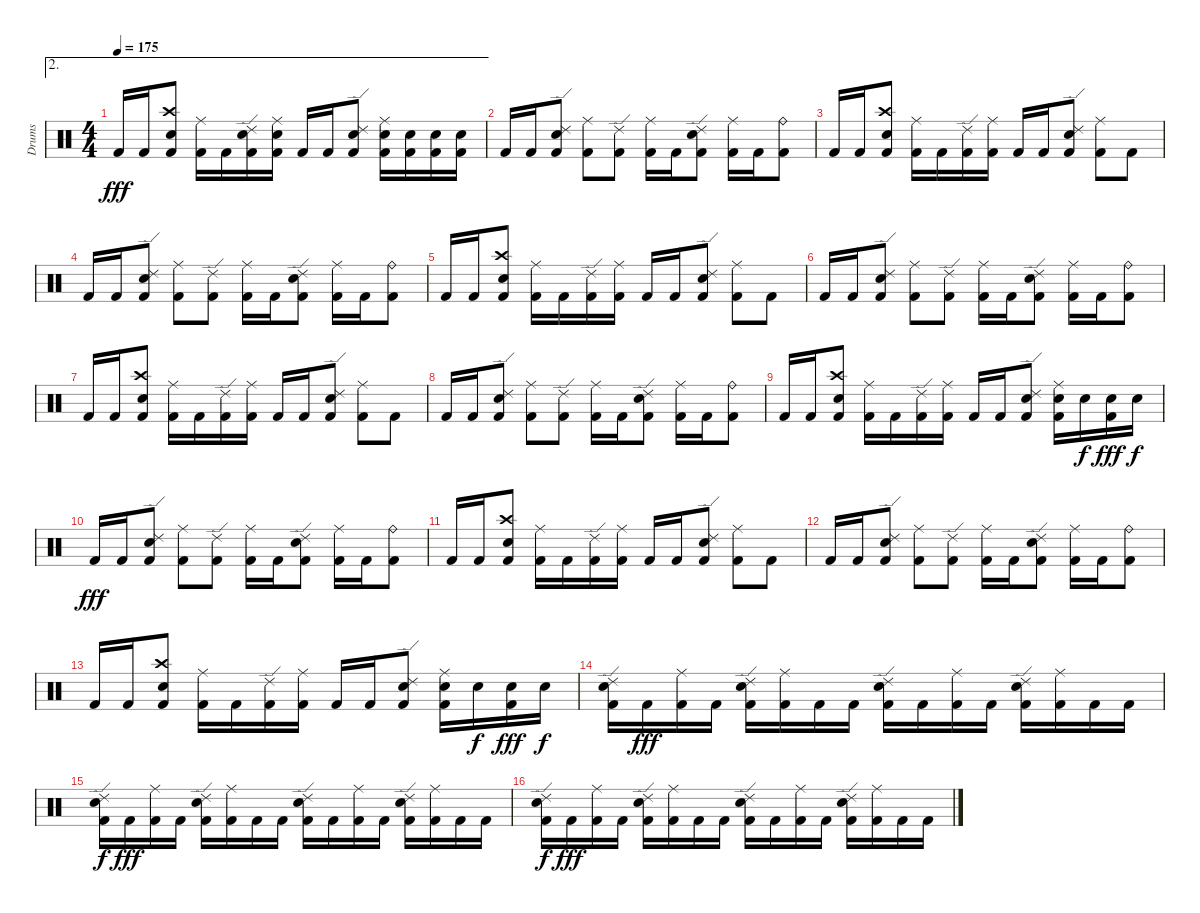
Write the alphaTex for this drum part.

\track ("Drums" "Drums") {instrument percussion}
\staff {score}
\articulation defaults
\ae 2
\ts (4 4)
\tempo 175
\clef neutral
\ks c "Kick (hit) 2".16{dy fff} "Kick (hit) 2".16
("Crash high (hit)" "Electric Snare (hit)" "Kick (hit) 2").8 ("Ride (middle)" "Kick (hit) 2").16 "Kick (hit) 2".16 ("Ride (edge) 2" "Electric Snare (hit)" "Kick (hit) 2").16 ("Ride (middle)" "Electric Snare (hit)" "Kick (hit) 2").16 "Kick (hit) 2".16 "Kick (hit) 2".16 ("Ride (edge) 2" "Electric Snare (hit)" "Kick (hit) 2").8 ("Ride (middle)" "Electric Snare (hit)" "Kick (hit) 2").16 ("Electric Snare (hit)" "Kick (hit) 2").16 ("Electric Snare (hit)" "Kick (hit) 2").16 ("Electric Snare (hit)" "Kick (hit) 2").16 |
"Kick (hit) 2".16 "Kick (hit) 2".16 ("Ride (edge) 2" "Electric Snare (hit)" "Kick (hit) 2").8 ("Ride (middle)" "Kick (hit) 2").8 ("Ride (edge) 2" "Kick (hit) 2").8 ("Ride (middle)" "Kick (hit) 2").16 "Kick (hit) 2".16 ("Ride (edge) 2" "Electric Snare (hit)" "Kick (hit) 2").8 ("Ride (middle)" "Kick (hit) 2").16 "Kick (hit) 2".16 ("Ride (bell)" "Kick (hit) 2").8 |
"Kick (hit) 2".16 "Kick (hit) 2".16 ("Crash high (hit)" "Electric Snare (hit)" "Kick (hit) 2").8 ("Ride (middle)" "Kick (hit) 2").16 "Kick (hit) 2".16 ("Ride (edge) 2" "Kick (hit) 2").16 ("Ride (middle)" "Kick (hit) 2").16 "Kick (hit) 2".16 "Kick (hit) 2".16 ("Ride (edge) 2" "Electric Snare (hit)" "Kick (hit) 2").8 ("Ride (middle)" "Kick (hit) 2").8 "Kick (hit) 2".8 |
"Kick (hit) 2".16 "Kick (hit) 2".16 ("Ride (edge) 2" "Electric Snare (hit)" "Kick (hit) 2").8 ("Ride (middle)" "Kick (hit) 2").8 ("Ride (edge) 2" "Kick (hit) 2").8 ("Ride (middle)" "Kick (hit) 2").16 "Kick (hit) 2".16 ("Ride (edge) 2" "Electric Snare (hit)" "Kick (hit) 2").8 ("Ride (middle)" "Kick (hit) 2").16 "Kick (hit) 2".16 ("Ride (bell)" "Kick (hit) 2").8 |
"Kick (hit) 2".16 "Kick (hit) 2".16 ("Crash high (hit)" "Electric Snare (hit)" "Kick (hit) 2").8 ("Ride (middle)" "Kick (hit) 2").16 "Kick (hit) 2".16 ("Ride (edge) 2" "Kick (hit) 2").16 ("Ride (middle)" "Kick (hit) 2").16 "Kick (hit) 2".16 "Kick (hit) 2".16 ("Ride (edge) 2" "Electric Snare (hit)" "Kick (hit) 2").8 ("Ride (middle)" "Kick (hit) 2").8 "Kick (hit) 2".8 |
"Kick (hit) 2".16 "Kick (hit) 2".16 ("Ride (edge) 2" "Electric Snare (hit)" "Kick (hit) 2").8 ("Ride (middle)" "Kick (hit) 2").8 ("Ride (edge) 2" "Kick (hit) 2").8 ("Ride (middle)" "Kick (hit) 2").16 "Kick (hit) 2".16 ("Ride (edge) 2" "Electric Snare (hit)" "Kick (hit) 2").8 ("Ride (middle)" "Kick (hit) 2").16 "Kick (hit) 2".16 ("Ride (bell)" "Kick (hit) 2").8 |
"Kick (hit) 2".16 "Kick (hit) 2".16 ("Crash high (hit)" "Electric Snare (hit)" "Kick (hit) 2").8 ("Ride (middle)" "Kick (hit) 2").16 "Kick (hit) 2".16 ("Ride (edge) 2" "Kick (hit) 2").16 ("Ride (middle)" "Kick (hit) 2").16 "Kick (hit) 2".16 "Kick (hit) 2".16 ("Ride (edge) 2" "Electric Snare (hit)" "Kick (hit) 2").8 ("Ride (middle)" "Kick (hit) 2").8 "Kick (hit) 2".8 |
"Kick (hit) 2".16 "Kick (hit) 2".16 ("Ride (edge) 2" "Electric Snare (hit)" "Kick (hit) 2").8 ("Ride (middle)" "Kick (hit) 2").8 ("Ride (edge) 2" "Kick (hit) 2").8 ("Ride (middle)" "Kick (hit) 2").16 "Kick (hit) 2".16 ("Ride (edge) 2" "Electric Snare (hit)" "Kick (hit) 2").8 ("Ride (middle)" "Kick (hit) 2").16 "Kick (hit) 2".16 ("Ride (bell)" "Kick (hit) 2").8 |
"Kick (hit) 2".16 "Kick (hit) 2".16 ("Crash high (hit)" "Electric Snare (hit)" "Kick (hit) 2").8 ("Ride (middle)" "Kick (hit) 2").16 "Kick (hit) 2".16 ("Ride (edge) 2" "Kick (hit) 2").16 ("Ride (middle)" "Kick (hit) 2").16 "Kick (hit) 2".16 "Kick (hit) 2".16 ("Ride (edge) 2" "Electric Snare (hit)" "Kick (hit) 2").8 ("Ride (middle)" "Electric Snare (hit)" "Kick (hit) 2").16 "Electric Snare (hit)".16{dy f} ("Electric Snare (hit)" "Kick (hit) 2").16{dy fff} "Electric Snare (hit)".16{dy f} |
"Kick (hit) 2".16{dy fff} "Kick (hit) 2".16 ("Ride (edge) 2" "Electric Snare (hit)" "Kick (hit) 2").8 ("Ride (middle)" "Kick (hit) 2").8 ("Ride (edge) 2" "Kick (hit) 2").8 ("Ride (middle)" "Kick (hit) 2").16 "Kick (hit) 2".16 ("Ride (edge) 2" "Electric Snare (hit)" "Kick (hit) 2").8 ("Ride (middle)" "Kick (hit) 2").16 "Kick (hit) 2".16 ("Ride (bell)" "Kick (hit) 2").8 |
"Kick (hit) 2".16 "Kick (hit) 2".16 ("Crash high (hit)" "Electric Snare (hit)" "Kick (hit) 2").8 ("Ride (middle)" "Kick (hit) 2").16 "Kick (hit) 2".16 ("Ride (edge) 2" "Kick (hit) 2").16 ("Ride (middle)" "Kick (hit) 2").16 "Kick (hit) 2".16 "Kick (hit) 2".16 ("Ride (edge) 2" "Electric Snare (hit)" "Kick (hit) 2").8 ("Ride (middle)" "Kick (hit) 2").8 "Kick (hit) 2".8 |
"Kick (hit) 2".16 "Kick (hit) 2".16 ("Ride (edge) 2" "Electric Snare (hit)" "Kick (hit) 2").8 ("Ride (middle)" "Kick (hit) 2").8 ("Ride (edge) 2" "Kick (hit) 2").8 ("Ride (middle)" "Kick (hit) 2").16 "Kick (hit) 2".16 ("Ride (edge) 2" "Electric Snare (hit)" "Kick (hit) 2").8 ("Ride (middle)" "Kick (hit) 2").16 "Kick (hit) 2".16 ("Ride (bell)" "Kick (hit) 2").8 |
"Kick (hit) 2".16 "Kick (hit) 2".16 ("Crash high (hit)" "Electric Snare (hit)" "Kick (hit) 2").8 ("Ride (middle)" "Kick (hit) 2").16 "Kick (hit) 2".16 ("Ride (edge) 2" "Kick (hit) 2").16 ("Ride (middle)" "Kick (hit) 2").16 "Kick (hit) 2".16 "Kick (hit) 2".16 ("Ride (edge) 2" "Electric Snare (hit)" "Kick (hit) 2").8 ("Ride (middle)" "Electric Snare (hit)" "Kick (hit) 2").16 "Electric Snare (hit)".16{dy f} ("Electric Snare (hit)" "Kick (hit) 2").16{dy fff} "Electric Snare (hit)".16{dy f} |
("Ride (edge) 2" "Electric Snare (hit)" "Kick (hit) 2").16 "Kick (hit) 2".16{dy fff} ("Ride (middle)" "Kick (hit) 2").16 "Kick (hit) 2".16 ("Ride (edge) 2" "Electric Snare (hit)" "Kick (hit) 2").16 ("Ride (middle)" "Kick (hit) 2").16 "Kick (hit) 2".16 "Kick (hit) 2".16 ("Ride (edge) 2" "Electric Snare (hit)" "Kick (hit) 2").16 "Kick (hit) 2".16 ("Ride (middle)" "Kick (hit) 2").16 "Kick (hit) 2".16 ("Ride (edge) 2" "Electric Snare (hit)" "Kick (hit) 2").16 ("Ride (middle)" "Kick (hit) 2").16 "Kick (hit) 2".16 "Kick (hit) 2".16 |
("Ride (edge) 2" "Electric Snare (hit)" "Kick (hit) 2").16{dy f} "Kick (hit) 2".16{dy fff} ("Ride (middle)" "Kick (hit) 2").16 "Kick (hit) 2".16 ("Ride (edge) 2" "Electric Snare (hit)" "Kick (hit) 2").16 ("Ride (middle)" "Kick (hit) 2").16 "Kick (hit) 2".16 "Kick (hit) 2".16 ("Ride (edge) 2" "Electric Snare (hit)" "Kick (hit) 2").16 "Kick (hit) 2".16 ("Ride (middle)" "Kick (hit) 2").16 "Kick (hit) 2".16 ("Ride (edge) 2" "Electric Snare (hit)" "Kick (hit) 2").16 ("Ride (middle)" "Kick (hit) 2").16 "Kick (hit) 2".16 "Kick (hit) 2".16 |
("Ride (edge) 2" "Electric Snare (hit)" "Kick (hit) 2").16{dy f} "Kick (hit) 2".16{dy fff} ("Ride (middle)" "Kick (hit) 2").16 "Kick (hit) 2".16 ("Ride (edge) 2" "Electric Snare (hit)" "Kick (hit) 2").16 ("Ride (middle)" "Kick (hit) 2").16 "Kick (hit) 2".16 "Kick (hit) 2".16 ("Ride (edge) 2" "Electric Snare (hit)" "Kick (hit) 2").16 "Kick (hit) 2".16 ("Ride (middle)" "Kick (hit) 2").16 "Kick (hit) 2".16 ("Ride (edge) 2" "Electric Snare (hit)" "Kick (hit) 2").16 ("Ride (middle)" "Kick (hit) 2").16 "Kick (hit) 2".16 "Kick (hit) 2".16
